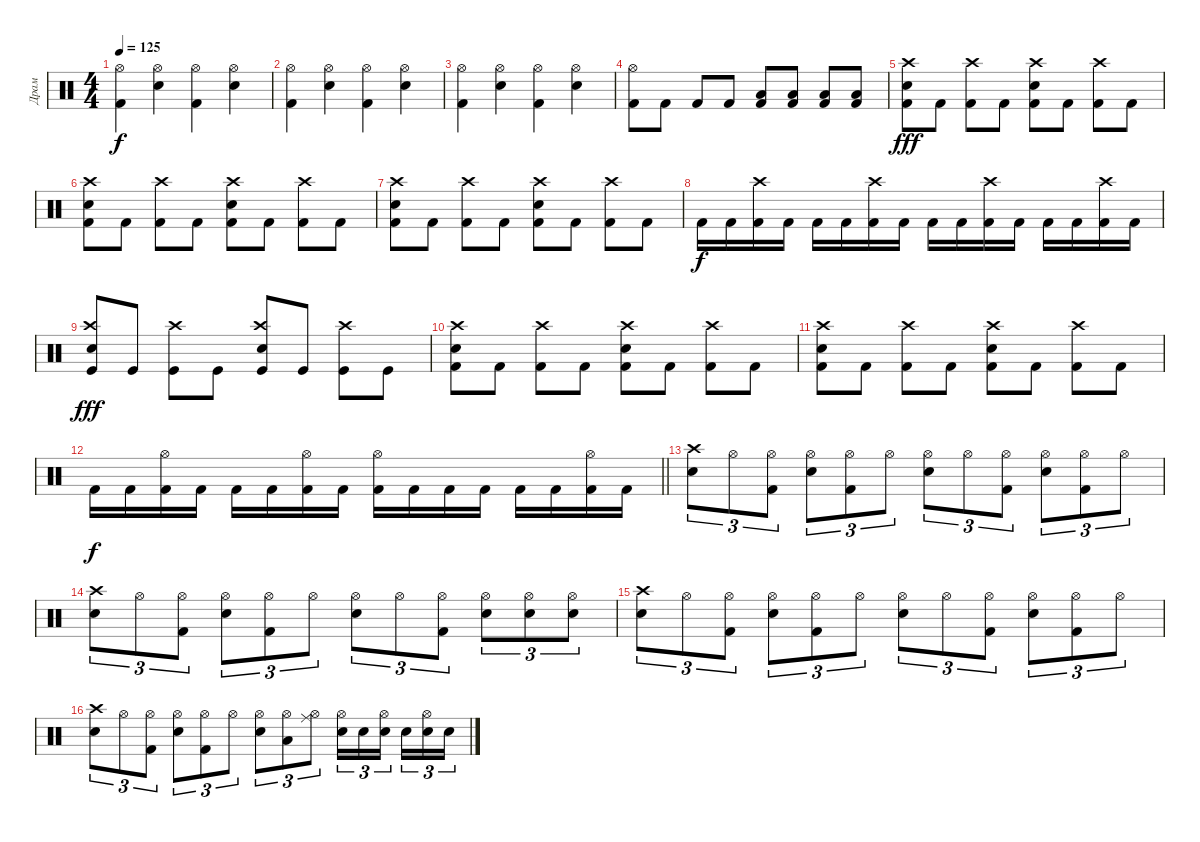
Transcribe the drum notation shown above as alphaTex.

\track ("Драм" "Драм") {instrument percussion}
\staff {score}
\articulation defaults
\ts (4 4)
\tempo 125
\clef neutral
\ks c
("Hi-Hat (open)" "Kick (hit) 2").4{dy f} ("Hi-Hat (open)" "Snare (hit) 2").4 ("Hi-Hat (open)" "Kick (hit) 2").4 ("Hi-Hat (open)" "Snare (hit) 2").4 |
("Hi-Hat (open)" "Kick (hit) 2").4 ("Hi-Hat (open)" "Snare (hit) 2").4 ("Hi-Hat (open)" "Kick (hit) 2").4 ("Hi-Hat (open)" "Snare (hit) 2").4 |
("Hi-Hat (open)" "Kick (hit) 2").4 ("Hi-Hat (open)" "Snare (hit) 2").4 ("Hi-Hat (open)" "Kick (hit) 2").4 ("Hi-Hat (open)" "Snare (hit) 2").4 |
("Hi-Hat (open)" "Kick (hit) 2").8 "Kick (hit) 2".8 "Kick (hit) 2".8 "Kick (hit) 2".8 ("Low Floor Tom (hit)" "Kick (hit) 2").8 ("Low Floor Tom (hit)" "Kick (hit) 2").8 ("Low Floor Tom (hit)" "Kick (hit) 2").8 ("Low Floor Tom (hit)" "Kick (hit) 2").8 |
("Crash high (hit)" "Snare (hit) 2" "Kick (hit) 2").8{dy fff} "Kick (hit) 2".8 ("Crash high (hit)" "Kick (hit) 2").8 "Kick (hit) 2".8 ("Crash high (hit)" "Snare (hit) 2" "Kick (hit) 2").8 "Kick (hit) 2".8 ("Crash high (hit)" "Kick (hit) 2").8 "Kick (hit) 2".8 |
("Crash high (hit)" "Snare (hit) 2" "Kick (hit) 2").8 "Kick (hit) 2".8 ("Crash high (hit)" "Kick (hit) 2").8 "Kick (hit) 2".8 ("Crash high (hit)" "Snare (hit) 2" "Kick (hit) 2").8 "Kick (hit) 2".8 ("Crash high (hit)" "Kick (hit) 2").8 "Kick (hit) 2".8 |
("Crash high (hit)" "Snare (hit) 2" "Kick (hit) 2").8 "Kick (hit) 2".8 ("Crash high (hit)" "Kick (hit) 2").8 "Kick (hit) 2".8 ("Crash high (hit)" "Snare (hit) 2" "Kick (hit) 2").8 "Kick (hit) 2".8 ("Crash high (hit)" "Kick (hit) 2").8 "Kick (hit) 2".8 |
"Kick (hit) 2".16{dy f} "Kick (hit) 2".16 ("Crash high (hit)" "Kick (hit) 2").16 "Kick (hit) 2".16 "Kick (hit) 2".16 "Kick (hit) 2".16 ("Crash high (hit)" "Kick (hit) 2").16 "Kick (hit) 2".16 "Kick (hit) 2".16 "Kick (hit) 2".16 ("Crash high (hit)" "Kick (hit) 2").16 "Kick (hit) 2".16 "Kick (hit) 2".16 "Kick (hit) 2".16 ("Crash high (hit)" "Kick (hit) 2").16 "Kick (hit) 2".16 |
("Crash high (hit)" "Snare (hit) 2" "Kick (hit)").8{dy fff} "Kick (hit)".8 ("Crash high (hit)" "Kick (hit)").8 "Kick (hit)".8 ("Crash high (hit)" "Snare (hit) 2" "Kick (hit)").8 "Kick (hit)".8 ("Crash high (hit)" "Kick (hit)").8 "Kick (hit)".8 |
("Crash high (hit)" "Snare (hit) 2" "Kick (hit) 2").8 "Kick (hit) 2".8 ("Crash high (hit)" "Kick (hit) 2").8 "Kick (hit) 2".8 ("Crash high (hit)" "Snare (hit) 2" "Kick (hit) 2").8 "Kick (hit) 2".8 ("Crash high (hit)" "Kick (hit) 2").8 "Kick (hit) 2".8 |
("Crash high (hit)" "Snare (hit) 2" "Kick (hit) 2").8 "Kick (hit) 2".8 ("Crash high (hit)" "Kick (hit) 2").8 "Kick (hit) 2".8 ("Crash high (hit)" "Snare (hit) 2" "Kick (hit) 2").8 "Kick (hit) 2".8 ("Crash high (hit)" "Kick (hit) 2").8 "Kick (hit) 2".8 |
\barLineRight lightlight "Kick (hit) 2".16{dy f} "Kick (hit) 2".16
("Hi-Hat (open)" "Kick (hit) 2").16 "Kick (hit) 2".16 "Kick (hit) 2".16 "Kick (hit) 2".16 ("Hi-Hat (open)" "Kick (hit) 2").16 "Kick (hit) 2".16 ("Hi-Hat (open)" "Kick (hit) 2").16 "Kick (hit) 2".16 "Kick (hit) 2".16 "Kick (hit) 2".16 "Kick (hit) 2".16 "Kick (hit) 2".16 ("Hi-Hat (open)" "Kick (hit) 2").16 "Kick (hit) 2".16 |
("Crash high (hit)" "Snare (hit) 2").8{tu (3 2)} "Hi-Hat (open)".8{tu (3 2)} ("Hi-Hat (open)" "Kick (hit) 2").8{tu (3 2)} ("Hi-Hat (open)" "Snare (hit) 2").8{tu (3 2)} ("Hi-Hat (open)" "Kick (hit) 2").8{tu (3 2)} "Hi-Hat (open)".8{tu (3 2)} ("Hi-Hat (open)" "Snare (hit) 2").8{tu (3 2)} "Hi-Hat (open)".8{tu (3 2)} ("Hi-Hat (open)" "Kick (hit) 2").8{tu (3 2)} ("Hi-Hat (open)" "Snare (hit) 2").8{tu (3 2)} ("Hi-Hat (open)" "Kick (hit) 2").8{tu (3 2)} "Hi-Hat (open)".8{tu (3 2)} |
("Crash high (hit)" "Snare (hit) 2").8{tu (3 2)} "Hi-Hat (open)".8{tu (3 2)} ("Hi-Hat (open)" "Kick (hit) 2").8{tu (3 2)} ("Hi-Hat (open)" "Snare (hit) 2").8{tu (3 2)} ("Hi-Hat (open)" "Kick (hit) 2").8{tu (3 2)} "Hi-Hat (open)".8{tu (3 2)} ("Hi-Hat (open)" "Snare (hit) 2").8{tu (3 2)} "Hi-Hat (open)".8{tu (3 2)} ("Hi-Hat (open)" "Kick (hit) 2").8{tu (3 2)} ("Hi-Hat (open)" "Snare (hit) 2").8{tu (3 2)} ("Hi-Hat (open)" "Snare (hit) 2").8{tu (3 2)} ("Hi-Hat (open)" "Snare (hit) 2").8{tu (3 2)} |
("Crash high (hit)" "Snare (hit) 2").8{tu (3 2)} "Hi-Hat (open)".8{tu (3 2)} ("Hi-Hat (open)" "Kick (hit) 2").8{tu (3 2)} ("Hi-Hat (open)" "Snare (hit) 2").8{tu (3 2)} ("Hi-Hat (open)" "Kick (hit) 2").8{tu (3 2)} "Hi-Hat (open)".8{tu (3 2)} ("Hi-Hat (open)" "Snare (hit) 2").8{tu (3 2)} "Hi-Hat (open)".8{tu (3 2)} ("Hi-Hat (open)" "Kick (hit) 2").8{tu (3 2)} ("Hi-Hat (open)" "Snare (hit) 2").8{tu (3 2)} ("Hi-Hat (open)" "Kick (hit) 2").8{tu (3 2)} "Hi-Hat (open)".8{tu (3 2)} |
("Crash high (hit)" "Snare (hit) 2").8{tu (3 2)} "Hi-Hat (open)".8{tu (3 2)} ("Hi-Hat (open)" "Kick (hit) 2").8{tu (3 2)} ("Hi-Hat (open)" "Snare (hit) 2").8{tu (3 2)} ("Hi-Hat (open)" "Kick (hit) 2").8{tu (3 2)} "Hi-Hat (open)".8{tu (3 2)} ("Hi-Hat (open)" "Snare (hit) 2").8{tu (3 2)} ("Hi-Hat (open)" "Low Floor Tom (hit)").8{tu (3 2)} ("Hi-Hat (open)" "Ride (middle)").8{tu (3 2)} ("Hi-Hat (open)" "Snare (hit) 2").16{tu (3 2)} "Snare (hit) 2".16{tu (3 2)} ("Hi-Hat (open)" "Snare (hit) 2").16{tu (3 2) beam splitsecondary} "Snare (hit) 2".16{tu (3 2)} ("Hi-Hat (open)" "Snare (hit) 2").16{tu (3 2)} "Snare (hit) 2".16{tu (3 2)}
